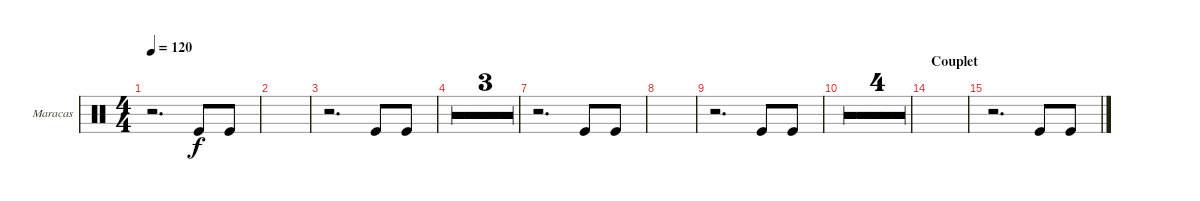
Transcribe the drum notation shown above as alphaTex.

\defaultSystemsLayout 4
\bracketExtendMode groupsimilarinstruments
\firstSystemTrackNameOrientation horizontal
\otherSystemsTrackNameOrientation horizontal
\track ("Maracas" "Maracas") {multiBarRest instrument percussion}
\staff {score}
\articulation defaults
\ts (4 4)
\tempo 120
\clef neutral
\ks c
r.2{d dy f} "Kick (hit)".8 "Kick (hit)".8 |
|
r.2{d} "Kick (hit)".8 "Kick (hit)".8 |
|
|
|
r.2{d} "Kick (hit)".8 "Kick (hit)".8 |
|
r.2{d} "Kick (hit)".8 "Kick (hit)".8 |
|
|
|
|
\section ("" "Couplet")
|
r.2{d} "Kick (hit)".8 "Kick (hit)".8
